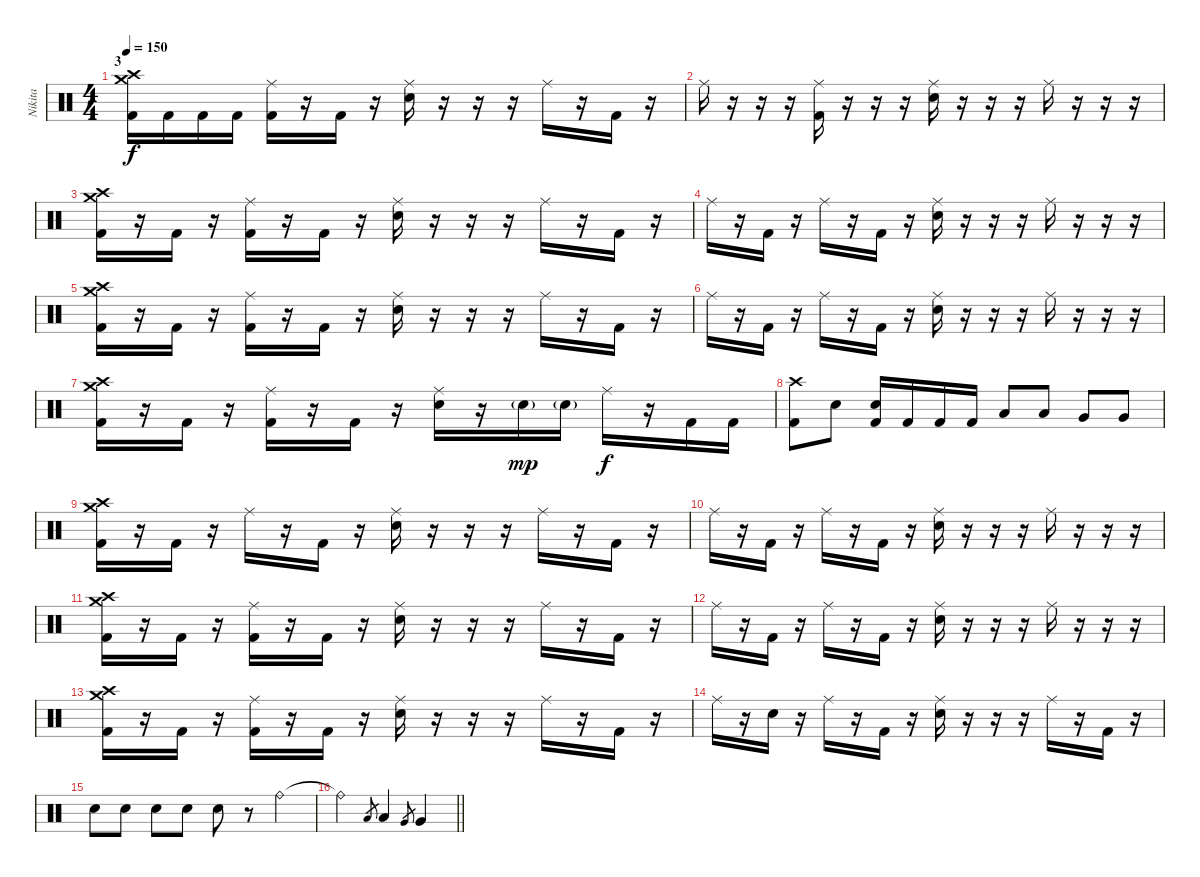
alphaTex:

\track ("Nikita" "Nikita") {instrument percussion}
\staff {score}
\articulation defaults
\ts (4 4)
\section ("" "3")
\tempo 150
\clef neutral
\ks c
("Crash high (hit)" "Crash medium (hit)" "Kick (hit) 2").16{dy f} "Kick (hit) 2".16 "Kick (hit) 2".16 "Kick (hit) 2".16 ("Ride (middle)" "Kick (hit) 2").16 r.16 "Kick (hit) 2".16 r.16 ("Ride (middle)" "Electric Snare (hit)").16 r.16 r.16 r.16 "Ride (middle)".16 r.16 "Kick (hit) 2".16 r.16 |
"Ride (middle)".16 r.16 r.16 r.16 ("Ride (middle)" "Kick (hit) 2").16 r.16 r.16 r.16 ("Ride (middle)" "Electric Snare (hit)").16 r.16 r.16 r.16 "Ride (middle)".16 r.16 r.16 r.16 |
("Crash high (hit)" "Crash medium (hit)" "Kick (hit) 2").16 r.16 "Kick (hit) 2".16 r.16 ("Ride (middle)" "Kick (hit) 2").16 r.16 "Kick (hit) 2".16 r.16 ("Ride (middle)" "Electric Snare (hit)").16 r.16 r.16 r.16 "Ride (middle)".16 r.16 "Kick (hit) 2".16 r.16 |
"Ride (middle)".16 r.16 "Kick (hit) 2".16 r.16 "Ride (middle)".16 r.16 "Kick (hit) 2".16 r.16 ("Ride (middle)" "Electric Snare (hit)").16 r.16 r.16 r.16 "Ride (middle)".16 r.16 r.16 r.16 |
("Crash high (hit)" "Crash medium (hit)" "Kick (hit) 2").16 r.16 "Kick (hit) 2".16 r.16 ("Ride (middle)" "Kick (hit) 2").16 r.16 "Kick (hit) 2".16 r.16 ("Ride (middle)" "Electric Snare (hit)").16 r.16 r.16 r.16 "Ride (middle)".16 r.16 "Kick (hit) 2".16 r.16 |
"Ride (middle)".16 r.16 "Kick (hit) 2".16 r.16 "Ride (middle)".16 r.16 "Kick (hit) 2".16 r.16 ("Ride (middle)" "Electric Snare (hit)").16 r.16 r.16 r.16 "Ride (middle)".16 r.16 r.16 r.16 |
("Crash high (hit)" "Crash medium (hit)" "Kick (hit) 2").16 r.16 "Kick (hit) 2".16 r.16 ("Ride (middle)" "Kick (hit) 2").16 r.16 "Kick (hit) 2".16 r.16 ("Ride (middle)" "Electric Snare (hit)").16 r.16 "Electric Snare (hit)"{g}.16{dy mp} "Electric Snare (hit)"{g}.16 "Ride (middle)".16{dy f} r.16 "Kick (hit) 2".16 "Kick (hit) 2".16 |
("Crash high (hit)" "Kick (hit) 2").8 "Electric Snare (hit)".8 ("Electric Snare (hit)" "Kick (hit) 2").16 "Kick (hit) 2".16 "Kick (hit) 2".16 "Kick (hit) 2".16 "Low Tom (hit)".8 "Low Tom (hit)".8 "Very Low Tom (hit)".8 "Very Low Tom (hit)".8 |
("Crash high (hit)" "Crash medium (hit)" "Kick (hit) 2").16 r.16 "Kick (hit) 2".16 r.16 "Ride (middle)".16 r.16 "Kick (hit) 2".16 r.16 ("Ride (middle)" "Electric Snare (hit)").16 r.16 r.16 r.16 "Ride (middle)".16 r.16 "Kick (hit) 2".16 r.16 |
"Ride (middle)".16 r.16 "Kick (hit) 2".16 r.16 "Ride (middle)".16 r.16 "Kick (hit) 2".16 r.16 ("Ride (middle)" "Electric Snare (hit)").16 r.16 r.16 r.16 "Ride (middle)".16 r.16 r.16 r.16 |
("Crash high (hit)" "Crash medium (hit)" "Kick (hit) 2").16 r.16 "Kick (hit) 2".16 r.16 ("Ride (middle)" "Kick (hit) 2").16 r.16 "Kick (hit) 2".16 r.16 ("Ride (middle)" "Electric Snare (hit)").16 r.16 r.16 r.16 "Ride (middle)".16 r.16 "Kick (hit) 2".16 r.16 |
"Ride (middle)".16 r.16 "Kick (hit) 2".16 r.16 "Ride (middle)".16 r.16 "Kick (hit) 2".16 r.16 ("Ride (middle)" "Electric Snare (hit)").16 r.16 r.16 r.16 "Ride (middle)".16 r.16 r.16 r.16 |
("Crash high (hit)" "Crash medium (hit)" "Kick (hit) 2").16 r.16 "Kick (hit) 2".16 r.16 ("Ride (middle)" "Kick (hit) 2").16 r.16 "Kick (hit) 2".16 r.16 ("Ride (middle)" "Electric Snare (hit)").16 r.16 r.16 r.16 "Ride (middle)".16 r.16 "Kick (hit) 2".16 r.16 |
"Ride (middle)".16 r.16 "Electric Snare (hit)".16 r.16 "Ride (middle)".16 r.16 "Kick (hit) 2".16 r.16 ("Ride (middle)" "Electric Snare (hit)").16 r.16 r.16 r.16 "Ride (middle)".16 r.16 "Kick (hit) 2".16 r.16 |
"Electric Snare (hit)".8 "Electric Snare (hit)".8 "Electric Snare (hit)".8 "Electric Snare (hit)".8 "Electric Snare (hit)".8 r.8 "Ride (bell)".4 |
\barLineRight lightlight "Ride (bell)"{t}.2 "Low Tom (hit)".8{gr} "Low Tom (hit)".4 "Very Low Tom (hit)".8{gr} "Very Low Tom (hit)".4
